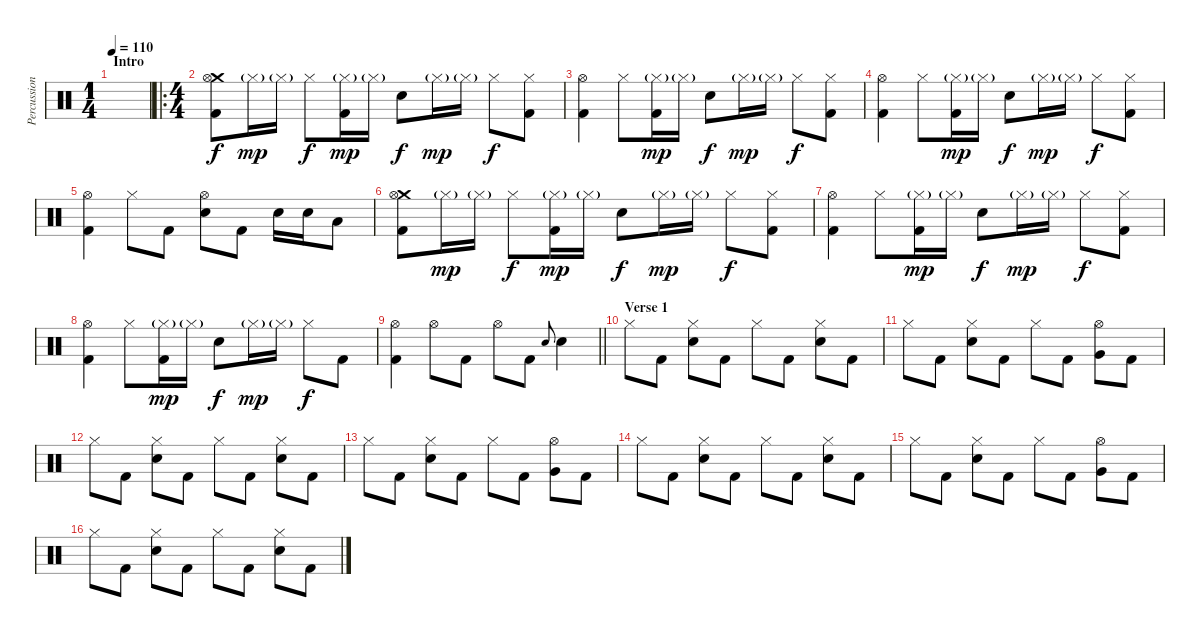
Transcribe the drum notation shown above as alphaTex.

\track ("Percussion" "Percussion") {instrument percussion}
\staff {score}
\articulation defaults
\ts (1 4)
\section ("" "Intro")
\tempo 110
\clef neutral
\ks aminor
|
\ro
\ts (4 4)
("Crash medium (hit)" "Hi-Hat (open)" "Kick (hit) 2").8 "Hi-Hat (closed)"{g}.16{dy mp} "Hi-Hat (closed)"{g}.16 "Hi-Hat (closed)".8{dy f} ("Hi-Hat (closed)"{g} "Kick (hit) 2").16{dy mp} "Hi-Hat (closed)"{g}.16 "Electric Snare (hit)".8{dy f} "Hi-Hat (closed)"{g}.16{dy mp} "Hi-Hat (closed)"{g}.16 "Hi-Hat (closed)".8{dy f} ("Hi-Hat (closed)" "Kick (hit) 2").8 |
("Hi-Hat (open)" "Kick (hit) 2").4 "Hi-Hat (closed)".8 ("Hi-Hat (closed)"{g} "Kick (hit) 2").16{dy mp} "Hi-Hat (closed)"{g}.16 "Electric Snare (hit)".8{dy f} "Hi-Hat (closed)"{g}.16{dy mp} "Hi-Hat (closed)"{g}.16 "Hi-Hat (closed)".8{dy f} ("Hi-Hat (closed)" "Kick (hit) 2").8 |
("Hi-Hat (open)" "Kick (hit) 2").4 "Hi-Hat (closed)".8 ("Hi-Hat (closed)"{g} "Kick (hit) 2").16{dy mp} "Hi-Hat (closed)"{g}.16 "Electric Snare (hit)".8{dy f} "Hi-Hat (closed)"{g}.16{dy mp} "Hi-Hat (closed)"{g}.16 "Hi-Hat (closed)".8{dy f} ("Hi-Hat (closed)" "Kick (hit) 2").8 |
("Hi-Hat (open)" "Kick (hit) 2").4 "Hi-Hat (closed)".8 "Kick (hit) 2".8 ("Hi-Hat (open)" "Electric Snare (hit)").8 "Kick (hit) 2".8 "Electric Snare (hit)".16 "Electric Snare (hit)".16 "Low Tom (hit)".8 |
("Crash medium (hit)" "Hi-Hat (open)" "Kick (hit) 2").8 "Hi-Hat (closed)"{g}.16{dy mp} "Hi-Hat (closed)"{g}.16 "Hi-Hat (closed)".8{dy f} ("Hi-Hat (closed)"{g} "Kick (hit) 2").16{dy mp} "Hi-Hat (closed)"{g}.16 "Electric Snare (hit)".8{dy f} "Hi-Hat (closed)"{g}.16{dy mp} "Hi-Hat (closed)"{g}.16 "Hi-Hat (closed)".8{dy f} ("Hi-Hat (closed)" "Kick (hit) 2").8 |
("Hi-Hat (open)" "Kick (hit) 2").4 "Hi-Hat (closed)".8 ("Hi-Hat (closed)"{g} "Kick (hit) 2").16{dy mp} "Hi-Hat (closed)"{g}.16 "Electric Snare (hit)".8{dy f} "Hi-Hat (closed)"{g}.16{dy mp} "Hi-Hat (closed)"{g}.16 "Hi-Hat (closed)".8{dy f} ("Hi-Hat (closed)" "Kick (hit) 2").8 |
("Hi-Hat (open)" "Kick (hit) 2").4 "Hi-Hat (closed)".8 ("Hi-Hat (closed)"{g} "Kick (hit) 2").16{dy mp} "Hi-Hat (closed)"{g}.16 "Electric Snare (hit)".8{dy f} "Hi-Hat (closed)"{g}.16{dy mp} "Hi-Hat (closed)"{g}.16 "Hi-Hat (closed)".8{dy f} "Kick (hit) 2".8 |
\barLineRight lightlight
("Hi-Hat (open)" "Kick (hit) 2").4 "Hi-Hat (open)".8 "Kick (hit) 2".8 "Hi-Hat (open)".8 "Kick (hit) 2".8 "Electric Snare (hit)".8{gr onbeat} "Electric Snare (hit)".4 |
\section ("" "Verse 1")
"Hi-Hat (closed)".8 "Kick (hit) 2".8 ("Hi-Hat (closed)" "Electric Snare (hit)").8 "Kick (hit) 2".8 "Hi-Hat (closed)".8 "Kick (hit) 2".8 ("Hi-Hat (closed)" "Electric Snare (hit)").8 "Kick (hit) 2".8 |
"Hi-Hat (closed)".8 "Kick (hit) 2".8 ("Hi-Hat (closed)" "Electric Snare (hit)").8 "Kick (hit) 2".8 "Hi-Hat (closed)".8 "Kick (hit) 2".8 ("Hi-Hat (open)" "Very Low Tom (hit)").8 "Kick (hit) 2".8 |
"Hi-Hat (closed)".8 "Kick (hit) 2".8 ("Hi-Hat (closed)" "Electric Snare (hit)").8 "Kick (hit) 2".8 "Hi-Hat (closed)".8 "Kick (hit) 2".8 ("Hi-Hat (closed)" "Electric Snare (hit)").8 "Kick (hit) 2".8 |
"Hi-Hat (closed)".8 "Kick (hit) 2".8 ("Hi-Hat (closed)" "Electric Snare (hit)").8 "Kick (hit) 2".8 "Hi-Hat (closed)".8 "Kick (hit) 2".8 ("Hi-Hat (open)" "Very Low Tom (hit)").8 "Kick (hit) 2".8 |
"Hi-Hat (closed)".8 "Kick (hit) 2".8 ("Hi-Hat (closed)" "Electric Snare (hit)").8 "Kick (hit) 2".8 "Hi-Hat (closed)".8 "Kick (hit) 2".8 ("Hi-Hat (closed)" "Electric Snare (hit)").8 "Kick (hit) 2".8 |
"Hi-Hat (closed)".8 "Kick (hit) 2".8 ("Hi-Hat (closed)" "Electric Snare (hit)").8 "Kick (hit) 2".8 "Hi-Hat (closed)".8 "Kick (hit) 2".8 ("Hi-Hat (open)" "Very Low Tom (hit)").8 "Kick (hit) 2".8 |
"Hi-Hat (closed)".8 "Kick (hit) 2".8 ("Hi-Hat (closed)" "Electric Snare (hit)").8 "Kick (hit) 2".8 "Hi-Hat (closed)".8 "Kick (hit) 2".8 ("Hi-Hat (closed)" "Electric Snare (hit)").8 "Kick (hit) 2".8
